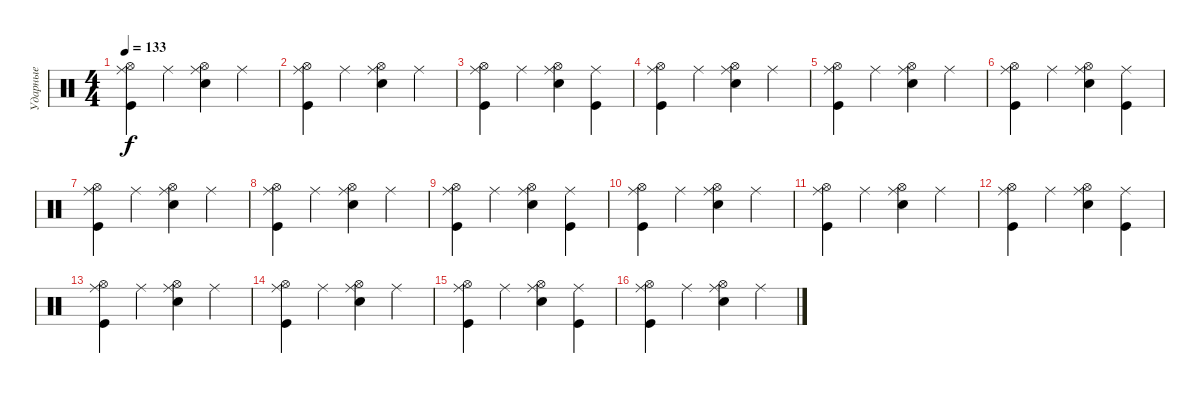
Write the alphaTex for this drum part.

\track ("Ударные" "Ударные") {instrument percussion}
\staff {score}
\articulation defaults
\ts (4 4)
\tempo 133
\clef neutral
\ks c
("Hi-Hat (open)" "Kick (hit)" "Ride (middle)").4{dy f} "Ride (middle)".4 ("Hi-Hat (open)" "Electric Snare (hit)" "Ride (middle)").4 "Ride (middle)".4 |
("Hi-Hat (open)" "Kick (hit)" "Ride (middle)").4 "Ride (middle)".4 ("Hi-Hat (open)" "Electric Snare (hit)" "Ride (middle)").4 "Ride (middle)".4 |
("Hi-Hat (open)" "Kick (hit)" "Ride (middle)").4 "Ride (middle)".4 ("Hi-Hat (open)" "Electric Snare (hit)" "Ride (middle)").4 ("Kick (hit)" "Ride (middle)").4 |
("Hi-Hat (open)" "Kick (hit)" "Ride (middle)").4 "Ride (middle)".4 ("Hi-Hat (open)" "Electric Snare (hit)" "Ride (middle)").4 "Ride (middle)".4 |
("Hi-Hat (open)" "Kick (hit)" "Ride (middle)").4 "Ride (middle)".4 ("Hi-Hat (open)" "Electric Snare (hit)" "Ride (middle)").4 "Ride (middle)".4 |
("Hi-Hat (open)" "Kick (hit)" "Ride (middle)").4 "Ride (middle)".4 ("Hi-Hat (open)" "Electric Snare (hit)" "Ride (middle)").4 ("Kick (hit)" "Ride (middle)").4 |
("Hi-Hat (open)" "Kick (hit)" "Ride (middle)").4 "Ride (middle)".4 ("Hi-Hat (open)" "Electric Snare (hit)" "Ride (middle)").4 "Ride (middle)".4 |
("Hi-Hat (open)" "Kick (hit)" "Ride (middle)").4 "Ride (middle)".4 ("Hi-Hat (open)" "Electric Snare (hit)" "Ride (middle)").4 "Ride (middle)".4 |
("Hi-Hat (open)" "Kick (hit)" "Ride (middle)").4 "Ride (middle)".4 ("Hi-Hat (open)" "Electric Snare (hit)" "Ride (middle)").4 ("Kick (hit)" "Ride (middle)").4 |
("Hi-Hat (open)" "Kick (hit)" "Ride (middle)").4 "Ride (middle)".4 ("Hi-Hat (open)" "Electric Snare (hit)" "Ride (middle)").4 "Ride (middle)".4 |
("Hi-Hat (open)" "Kick (hit)" "Ride (middle)").4 "Ride (middle)".4 ("Hi-Hat (open)" "Electric Snare (hit)" "Ride (middle)").4 "Ride (middle)".4 |
("Hi-Hat (open)" "Kick (hit)" "Ride (middle)").4 "Ride (middle)".4 ("Hi-Hat (open)" "Electric Snare (hit)" "Ride (middle)").4 ("Kick (hit)" "Ride (middle)").4 |
("Hi-Hat (open)" "Kick (hit)" "Ride (middle)").4 "Ride (middle)".4 ("Hi-Hat (open)" "Electric Snare (hit)" "Ride (middle)").4 "Ride (middle)".4 |
("Hi-Hat (open)" "Kick (hit)" "Ride (middle)").4 "Ride (middle)".4 ("Hi-Hat (open)" "Electric Snare (hit)" "Ride (middle)").4 "Ride (middle)".4 |
("Hi-Hat (open)" "Kick (hit)" "Ride (middle)").4 "Ride (middle)".4 ("Hi-Hat (open)" "Electric Snare (hit)" "Ride (middle)").4 ("Kick (hit)" "Ride (middle)").4 |
("Hi-Hat (open)" "Kick (hit)" "Ride (middle)").4 "Ride (middle)".4 ("Hi-Hat (open)" "Electric Snare (hit)" "Ride (middle)").4 "Ride (middle)".4
